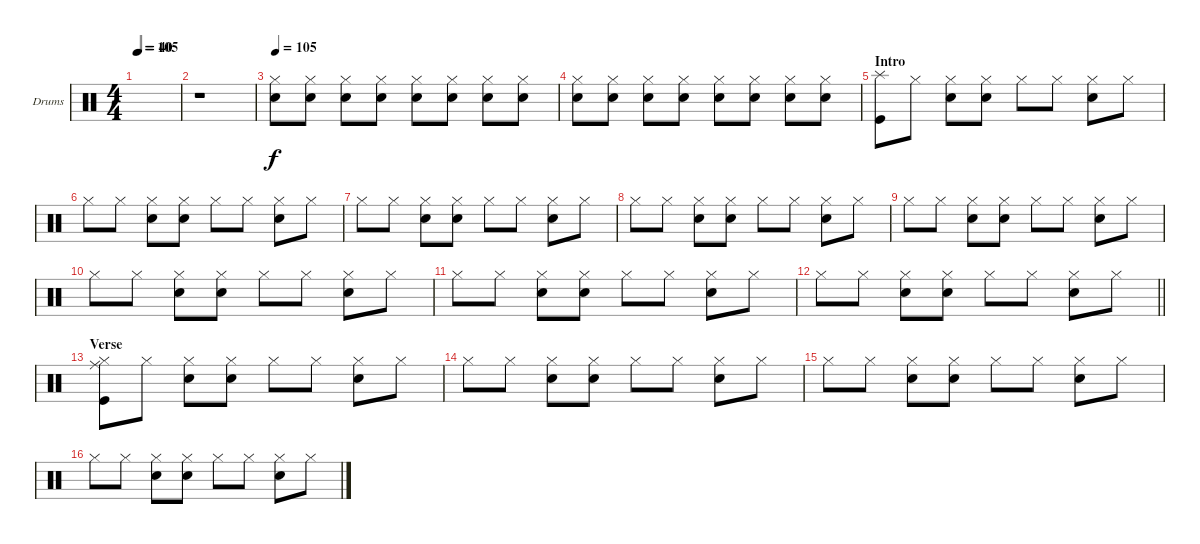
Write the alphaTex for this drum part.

\bracketExtendMode groupsimilarinstruments
\firstSystemTrackNameOrientation horizontal
\otherSystemsTrackNameOrientation horizontal
\track ("Drumkit" "Drums") {instrument percussion}
\staff {score}
\articulation defaults
\ts (4 4)
\tempo 105
\tempo (40 0.03125)
\clef neutral
\ks c
|
r.1 |
\tempo (105 0.00625)
("Snare (hit) 2" "Hi-Hat (closed)").8 ("Hi-Hat (closed)" "Snare (hit) 2").8 ("Snare (hit) 2" "Hi-Hat (closed)").8 ("Hi-Hat (closed)" "Snare (hit) 2").8 ("Snare (hit) 2" "Hi-Hat (closed)").8 ("Hi-Hat (closed)" "Snare (hit) 2").8 ("Snare (hit) 2" "Hi-Hat (closed)").8 ("Hi-Hat (closed)" "Snare (hit) 2").8 |
("Snare (hit) 2" "Hi-Hat (closed)").8 ("Hi-Hat (closed)" "Snare (hit) 2").8 ("Snare (hit) 2" "Hi-Hat (closed)").8 ("Hi-Hat (closed)" "Snare (hit) 2").8 ("Snare (hit) 2" "Hi-Hat (closed)").8 ("Hi-Hat (closed)" "Snare (hit) 2").8 ("Snare (hit) 2" "Hi-Hat (closed)").8 ("Hi-Hat (closed)" "Snare (hit) 2").8 |
\section ("" "Intro")
("Splash (hit)" "Kick (hit)").8 "Hi-Hat (closed)".8 ("Snare (hit) 2" "Hi-Hat (closed)").8 ("Hi-Hat (closed)" "Snare (hit) 2").8 "Hi-Hat (closed)".8 "Hi-Hat (closed)".8 ("Snare (hit) 2" "Hi-Hat (closed)").8 "Hi-Hat (closed)".8 |
"Hi-Hat (closed)".8 "Hi-Hat (closed)".8 ("Snare (hit) 2" "Hi-Hat (closed)").8 ("Hi-Hat (closed)" "Snare (hit) 2").8 "Hi-Hat (closed)".8 "Hi-Hat (closed)".8 ("Snare (hit) 2" "Hi-Hat (closed)").8 "Hi-Hat (closed)".8 |
"Hi-Hat (closed)".8 "Hi-Hat (closed)".8 ("Snare (hit) 2" "Hi-Hat (closed)").8 ("Hi-Hat (closed)" "Snare (hit) 2").8 "Hi-Hat (closed)".8 "Hi-Hat (closed)".8 ("Snare (hit) 2" "Hi-Hat (closed)").8 "Hi-Hat (closed)".8 |
"Hi-Hat (closed)".8 "Hi-Hat (closed)".8 ("Snare (hit) 2" "Hi-Hat (closed)").8 ("Hi-Hat (closed)" "Snare (hit) 2").8 "Hi-Hat (closed)".8 "Hi-Hat (closed)".8 ("Snare (hit) 2" "Hi-Hat (closed)").8 "Hi-Hat (closed)".8 |
"Hi-Hat (closed)".8 "Hi-Hat (closed)".8 ("Snare (hit) 2" "Hi-Hat (closed)").8 ("Hi-Hat (closed)" "Snare (hit) 2").8 "Hi-Hat (closed)".8 "Hi-Hat (closed)".8 ("Snare (hit) 2" "Hi-Hat (closed)").8 "Hi-Hat (closed)".8 |
"Hi-Hat (closed)".8 "Hi-Hat (closed)".8 ("Snare (hit) 2" "Hi-Hat (closed)").8 ("Hi-Hat (closed)" "Snare (hit) 2").8 "Hi-Hat (closed)".8 "Hi-Hat (closed)".8 ("Snare (hit) 2" "Hi-Hat (closed)").8 "Hi-Hat (closed)".8 |
"Hi-Hat (closed)".8 "Hi-Hat (closed)".8 ("Snare (hit) 2" "Hi-Hat (closed)").8 ("Hi-Hat (closed)" "Snare (hit) 2").8 "Hi-Hat (closed)".8 "Hi-Hat (closed)".8 ("Snare (hit) 2" "Hi-Hat (closed)").8 "Hi-Hat (closed)".8 |
\barLineRight lightlight "Hi-Hat (closed)".8 "Hi-Hat (closed)".8
("Snare (hit) 2" "Hi-Hat (closed)").8 ("Hi-Hat (closed)" "Snare (hit) 2").8 "Hi-Hat (closed)".8 "Hi-Hat (closed)".8 ("Snare (hit) 2" "Hi-Hat (closed)").8 "Hi-Hat (closed)".8 |
\section ("" "Verse")
("Hi-Hat (closed)" "Ride (middle)" "Kick (hit)").8 "Hi-Hat (closed)".8 ("Snare (hit) 2" "Hi-Hat (closed)").8 ("Hi-Hat (closed)" "Snare (hit) 2").8 "Hi-Hat (closed)".8 "Hi-Hat (closed)".8 ("Snare (hit) 2" "Hi-Hat (closed)").8 "Hi-Hat (closed)".8 |
"Hi-Hat (closed)".8 "Hi-Hat (closed)".8 ("Snare (hit) 2" "Hi-Hat (closed)").8 ("Hi-Hat (closed)" "Snare (hit) 2").8 "Hi-Hat (closed)".8 "Hi-Hat (closed)".8 ("Snare (hit) 2" "Hi-Hat (closed)").8 "Hi-Hat (closed)".8 |
"Hi-Hat (closed)".8 "Hi-Hat (closed)".8 ("Snare (hit) 2" "Hi-Hat (closed)").8 ("Hi-Hat (closed)" "Snare (hit) 2").8 "Hi-Hat (closed)".8 "Hi-Hat (closed)".8 ("Snare (hit) 2" "Hi-Hat (closed)").8 "Hi-Hat (closed)".8 |
"Hi-Hat (closed)".8 "Hi-Hat (closed)".8 ("Snare (hit) 2" "Hi-Hat (closed)").8 ("Hi-Hat (closed)" "Snare (hit) 2").8 "Hi-Hat (closed)".8 "Hi-Hat (closed)".8 ("Snare (hit) 2" "Hi-Hat (closed)").8 "Hi-Hat (closed)".8
